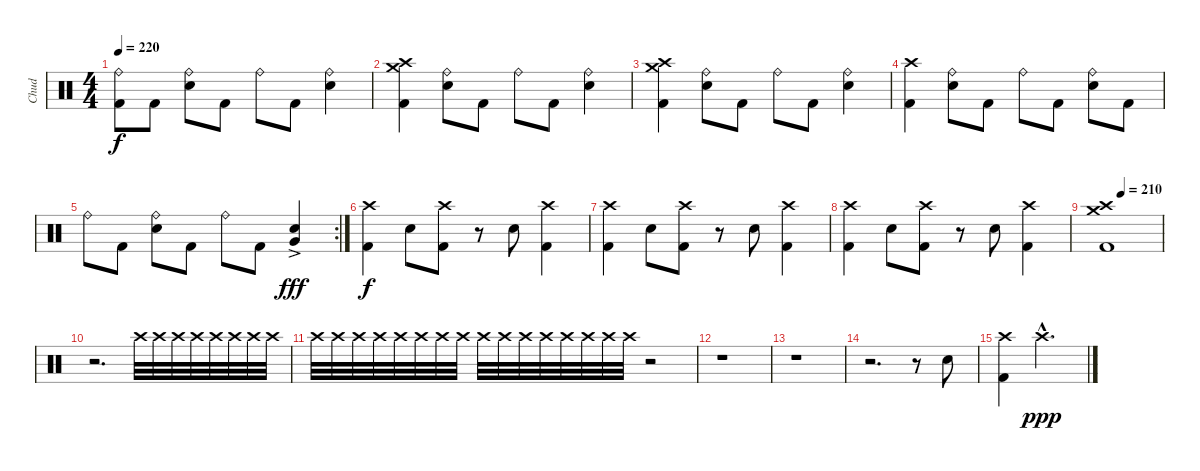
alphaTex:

\track ("Chud" "Chud") {instrument percussion}
\staff {score}
\articulation defaults
\ts (4 4)
\tempo 220
\clef neutral
\ks c
("Ride (bell)" "Kick (hit) 2").8{dy f} "Kick (hit) 2".8 ("Ride (bell)" "Electric Snare (hit)").8 "Kick (hit) 2".8 "Ride (bell)".8 "Kick (hit) 2".8 ("Ride (bell)" "Electric Snare (hit)").4 |
("Crash high (hit)" "Crash medium (hit)" "Kick (hit) 2").4 ("Ride (bell)" "Electric Snare (hit)").8 "Kick (hit) 2".8 "Ride (bell)".8 "Kick (hit) 2".8 ("Ride (bell)" "Electric Snare (hit)").4 |
("Crash high (hit)" "Crash medium (hit)" "Kick (hit) 2").4 ("Ride (bell)" "Electric Snare (hit)").8 "Kick (hit) 2".8 "Ride (bell)".8 "Kick (hit) 2".8 ("Ride (bell)" "Electric Snare (hit)").4 |
("Crash high (hit)" "Kick (hit) 2").4 ("Ride (bell)" "Electric Snare (hit)").8 "Kick (hit) 2".8 "Ride (bell)".8 "Kick (hit) 2".8 ("Ride (bell)" "Electric Snare (hit)").8 "Kick (hit) 2".8 |
\rc 2 "Ride (bell)".8 "Kick (hit) 2".8
("Ride (bell)" "Electric Snare (hit)").8 "Kick (hit) 2".8 "Ride (bell)".8 "Kick (hit) 2".8 ("Electric Snare (hit)" "Very Low Tom (hit)"{ac}).4{dy fff} |
("Crash high (hit)" "Kick (hit) 2").4{dy f} "Electric Snare (hit)".8 ("Crash high (hit)" "Kick (hit) 2").8 r.8 "Electric Snare (hit)".8 ("Crash high (hit)" "Kick (hit) 2").4 |
("Crash high (hit)" "Kick (hit) 2").4 "Electric Snare (hit)".8 ("Crash high (hit)" "Kick (hit) 2").8 r.8 "Electric Snare (hit)".8 ("Crash high (hit)" "Kick (hit) 2").4 |
("Crash high (hit)" "Kick (hit) 2").4 "Electric Snare (hit)".8 ("Crash high (hit)" "Kick (hit) 2").8 r.8 "Electric Snare (hit)".8 ("Crash high (hit)" "Kick (hit) 2").4 |
\tempo (210 0.375)
("Crash high (hit)" "Crash medium (hit)" "Kick (hit) 2").1 |
r.2{d} "Crash high (hit)".32 "Crash high (hit)".32 "Crash high (hit)".32 "Crash high (hit)".32 "Crash high (hit)".32 "Crash high (hit)".32 "Crash high (hit)".32 "Crash high (hit)".32 |
"Crash high (hit)".32 "Crash high (hit)".32 "Crash high (hit)".32 "Crash high (hit)".32 "Crash high (hit)".32 "Crash high (hit)".32 "Crash high (hit)".32 "Crash high (hit)".32 "Crash high (hit)".32 "Crash high (hit)".32 "Crash high (hit)".32 "Crash high (hit)".32 "Crash high (hit)".32 "Crash high (hit)".32 "Crash high (hit)".32 "Crash high (hit)".32 r.2 |
r.1 |
r.1 |
r.2{d} r.8 "Electric Snare (hit)".8 |
("Crash high (hit)" "Kick (hit) 2").4 "Crash high (hit)"{hac}.2{d dy ppp}
